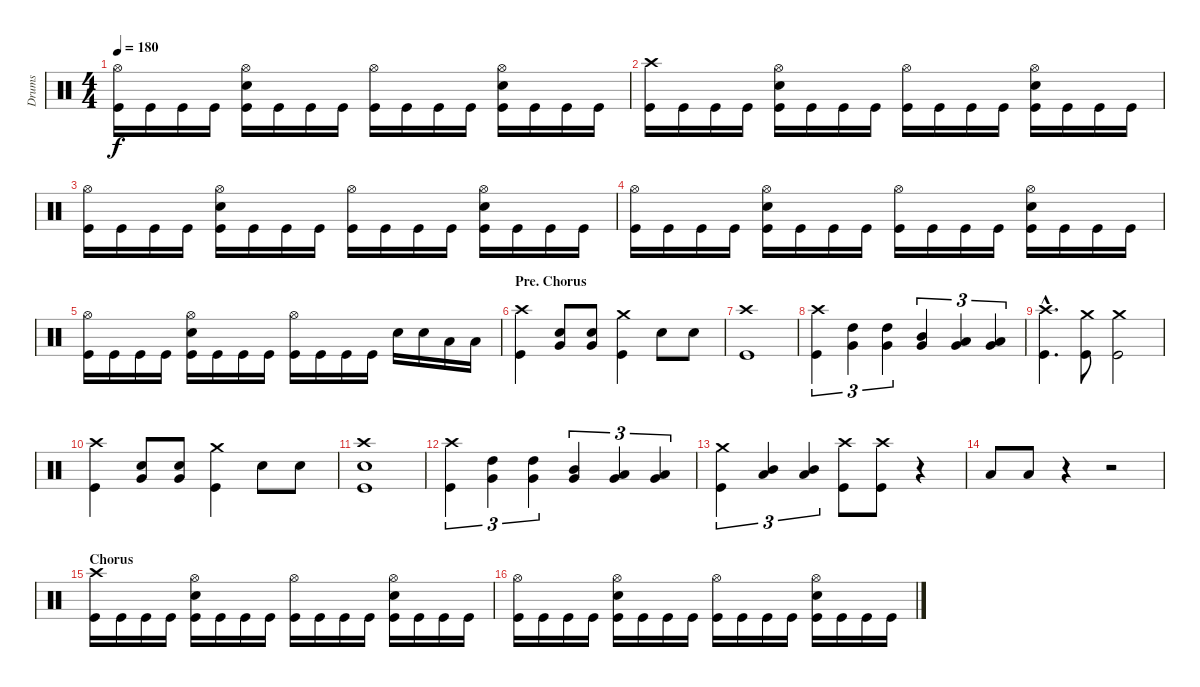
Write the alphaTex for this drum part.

\track ("Drums" "Drums") {instrument percussion}
\staff {score}
\articulation defaults
\ts (4 4)
\tempo 180
\clef neutral
\ks c
("Hi-Hat (open)" "Kick (hit)").16{dy f} "Kick (hit)".16 "Kick (hit)".16 "Kick (hit)".16 ("Hi-Hat (open)" "Electric Snare (hit)" "Kick (hit)").16 "Kick (hit)".16 "Kick (hit)".16 "Kick (hit)".16 ("Hi-Hat (open)" "Kick (hit)").16 "Kick (hit)".16 "Kick (hit)".16 "Kick (hit)".16 ("Hi-Hat (open)" "Electric Snare (hit)" "Kick (hit)").16 "Kick (hit)".16 "Kick (hit)".16 "Kick (hit)".16 |
("Crash high (hit)" "Kick (hit)").16 "Kick (hit)".16 "Kick (hit)".16 "Kick (hit)".16 ("Hi-Hat (open)" "Electric Snare (hit)" "Kick (hit)").16 "Kick (hit)".16 "Kick (hit)".16 "Kick (hit)".16 ("Hi-Hat (open)" "Kick (hit)").16 "Kick (hit)".16 "Kick (hit)".16 "Kick (hit)".16 ("Hi-Hat (open)" "Electric Snare (hit)" "Kick (hit)").16 "Kick (hit)".16 "Kick (hit)".16 "Kick (hit)".16 |
("Hi-Hat (open)" "Kick (hit)").16 "Kick (hit)".16 "Kick (hit)".16 "Kick (hit)".16 ("Hi-Hat (open)" "Electric Snare (hit)" "Kick (hit)").16 "Kick (hit)".16 "Kick (hit)".16 "Kick (hit)".16 ("Hi-Hat (open)" "Kick (hit)").16 "Kick (hit)".16 "Kick (hit)".16 "Kick (hit)".16 ("Hi-Hat (open)" "Electric Snare (hit)" "Kick (hit)").16 "Kick (hit)".16 "Kick (hit)".16 "Kick (hit)".16 |
("Hi-Hat (open)" "Kick (hit)").16 "Kick (hit)".16 "Kick (hit)".16 "Kick (hit)".16 ("Hi-Hat (open)" "Electric Snare (hit)" "Kick (hit)").16 "Kick (hit)".16 "Kick (hit)".16 "Kick (hit)".16 ("Hi-Hat (open)" "Kick (hit)").16 "Kick (hit)".16 "Kick (hit)".16 "Kick (hit)".16 ("Hi-Hat (open)" "Electric Snare (hit)" "Kick (hit)").16 "Kick (hit)".16 "Kick (hit)".16 "Kick (hit)".16 |
("Hi-Hat (open)" "Kick (hit)").16 "Kick (hit)".16 "Kick (hit)".16 "Kick (hit)".16 ("Hi-Hat (open)" "Electric Snare (hit)" "Kick (hit)").16 "Kick (hit)".16 "Kick (hit)".16 "Kick (hit)".16 ("Hi-Hat (open)" "Kick (hit)").16 "Kick (hit)".16 "Kick (hit)".16 "Kick (hit)".16 "Electric Snare (hit)".16 "Electric Snare (hit)".16 "Low Tom (hit)".16 "Low Tom (hit)".16 |
\section ("" "Pre. Chorus")
("Crash high (hit)" "Kick (hit)").4 ("Very Low Tom (hit)" "Electric Snare (hit)").8 ("Very Low Tom (hit)" "Electric Snare (hit)").8 ("Crash medium (hit)" "Kick (hit)").4 "Electric Snare (hit)".8 "Electric Snare (hit)".8 |
("Crash high (hit)" "Kick (hit)").1 |
("Crash high (hit)" "Kick (hit)").4{tu (3 2)} ("Very Low Tom (hit)" "High Tom (hit)").4{tu (3 2)} ("Very Low Tom (hit)" "High Tom (hit)").4{tu (3 2)} ("Very Low Tom (hit)" "Mid Tom (hit)").4{tu (3 2)} ("Very Low Tom (hit)" "Low Tom (hit)").4{tu (3 2)} ("Low Floor Tom (hit)" "Very Low Tom (hit)").4{tu (3 2)} |
("Crash high (hit)"{hac} "Kick (hit)"{hac}).4{d} ("Crash medium (hit)" "Kick (hit)").8 ("Crash medium (hit)" "Kick (hit)").2 |
("Crash high (hit)" "Kick (hit)").4 ("Very Low Tom (hit)" "Electric Snare (hit)").8 ("Very Low Tom (hit)" "Electric Snare (hit)").8 ("Crash medium (hit)" "Kick (hit)").4 "Electric Snare (hit)".8 "Electric Snare (hit)".8 |
("Crash high (hit)" "Electric Snare (hit)" "Kick (hit)").1 |
("Crash high (hit)" "Kick (hit)").4{tu (3 2)} ("Very Low Tom (hit)" "High Tom (hit)").4{tu (3 2)} ("Very Low Tom (hit)" "High Tom (hit)").4{tu (3 2)} ("Very Low Tom (hit)" "Mid Tom (hit)").4{tu (3 2)} ("Very Low Tom (hit)" "Low Tom (hit)").4{tu (3 2)} ("Very Low Tom (hit)" "Low Tom (hit)").4{tu (3 2)} |
("Crash medium (hit)" "Kick (hit)").4{tu (3 2)} ("Low Tom (hit)" "Mid Tom (hit)").4{tu (3 2)} ("Low Tom (hit)" "Mid Tom (hit)").4{tu (3 2)} ("Crash high (hit)" "Kick (hit)").8 ("Crash high (hit)" "Kick (hit)").8 r.4 |
"Low Tom (hit)".8 "Low Tom (hit)".8 r.4 r.2 |
\section ("" "Chorus")
("Crash high (hit)" "Kick (hit)").16 "Kick (hit)".16 "Kick (hit)".16 "Kick (hit)".16 ("Hi-Hat (open)" "Electric Snare (hit)" "Kick (hit)").16 "Kick (hit)".16 "Kick (hit)".16 "Kick (hit)".16 ("Hi-Hat (open)" "Kick (hit)").16 "Kick (hit)".16 "Kick (hit)".16 "Kick (hit)".16 ("Hi-Hat (open)" "Electric Snare (hit)" "Kick (hit)").16 "Kick (hit)".16 "Kick (hit)".16 "Kick (hit)".16 |
("Hi-Hat (open)" "Kick (hit)").16 "Kick (hit)".16 "Kick (hit)".16 "Kick (hit)".16 ("Hi-Hat (open)" "Electric Snare (hit)" "Kick (hit)").16 "Kick (hit)".16 "Kick (hit)".16 "Kick (hit)".16 ("Hi-Hat (open)" "Kick (hit)").16 "Kick (hit)".16 "Kick (hit)".16 "Kick (hit)".16 ("Hi-Hat (open)" "Electric Snare (hit)" "Kick (hit)").16 "Kick (hit)".16 "Kick (hit)".16 "Kick (hit)".16
